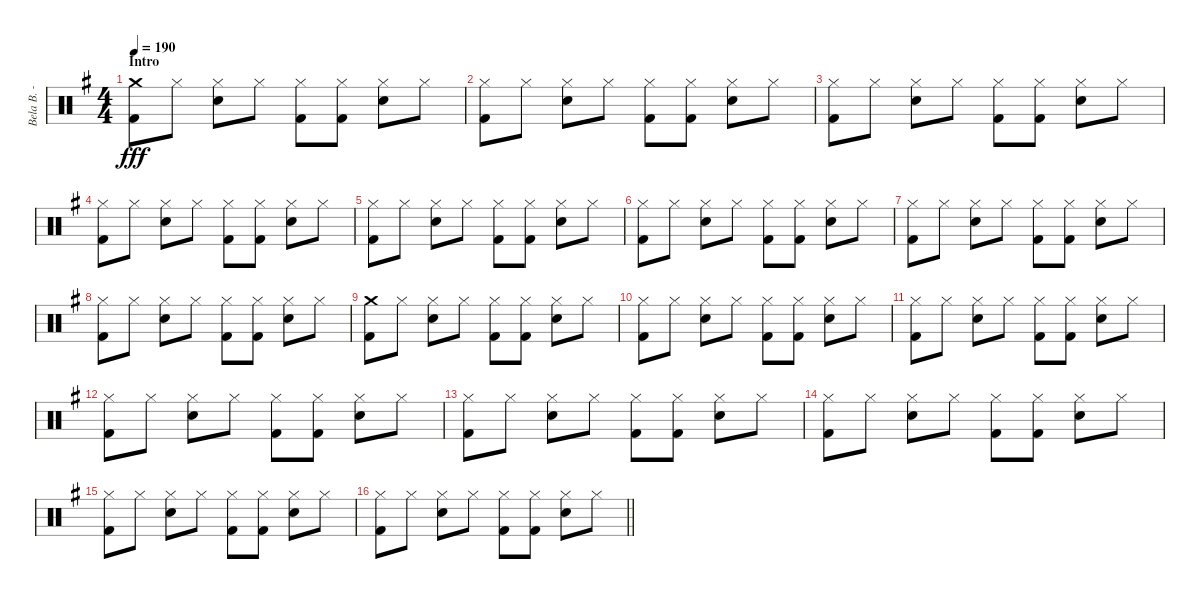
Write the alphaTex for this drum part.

\track ("Bela B. - Drums" "Bela B. - ") {instrument percussion}
\staff {score}
\articulation defaults
\ts (4 4)
\section ("" "Intro")
\tempo 190
\clef neutral
\ks g
("Crash medium (hit)" "Kick (hit) 2").8{dy fff} "Hi-Hat (closed)".8 ("Hi-Hat (closed)" "Snare (hit) 2").8 "Hi-Hat (closed)".8 ("Hi-Hat (closed)" "Kick (hit) 2").8 ("Hi-Hat (closed)" "Kick (hit) 2").8 ("Hi-Hat (closed)" "Snare (hit) 2").8 "Hi-Hat (closed)".8 |
("Hi-Hat (closed)" "Kick (hit) 2").8 "Hi-Hat (closed)".8 ("Hi-Hat (closed)" "Snare (hit) 2").8 "Hi-Hat (closed)".8 ("Hi-Hat (closed)" "Kick (hit) 2").8 ("Hi-Hat (closed)" "Kick (hit) 2").8 ("Hi-Hat (closed)" "Snare (hit) 2").8 "Hi-Hat (closed)".8 |
("Hi-Hat (closed)" "Kick (hit) 2").8 "Hi-Hat (closed)".8 ("Hi-Hat (closed)" "Snare (hit) 2").8 "Hi-Hat (closed)".8 ("Hi-Hat (closed)" "Kick (hit) 2").8 ("Hi-Hat (closed)" "Kick (hit) 2").8 ("Hi-Hat (closed)" "Snare (hit) 2").8 "Hi-Hat (closed)".8 |
("Hi-Hat (closed)" "Kick (hit) 2").8 "Hi-Hat (closed)".8 ("Hi-Hat (closed)" "Snare (hit) 2").8 "Hi-Hat (closed)".8 ("Hi-Hat (closed)" "Kick (hit) 2").8 ("Hi-Hat (closed)" "Kick (hit) 2").8 ("Hi-Hat (closed)" "Snare (hit) 2").8 "Hi-Hat (closed)".8 |
("Hi-Hat (closed)" "Kick (hit) 2").8 "Hi-Hat (closed)".8 ("Hi-Hat (closed)" "Snare (hit) 2").8 "Hi-Hat (closed)".8 ("Hi-Hat (closed)" "Kick (hit) 2").8 ("Hi-Hat (closed)" "Kick (hit) 2").8 ("Hi-Hat (closed)" "Snare (hit) 2").8 "Hi-Hat (closed)".8 |
("Hi-Hat (closed)" "Kick (hit) 2").8 "Hi-Hat (closed)".8 ("Hi-Hat (closed)" "Snare (hit) 2").8 "Hi-Hat (closed)".8 ("Hi-Hat (closed)" "Kick (hit) 2").8 ("Hi-Hat (closed)" "Kick (hit) 2").8 ("Hi-Hat (closed)" "Snare (hit) 2").8 "Hi-Hat (closed)".8 |
("Hi-Hat (closed)" "Kick (hit) 2").8 "Hi-Hat (closed)".8 ("Hi-Hat (closed)" "Snare (hit) 2").8 "Hi-Hat (closed)".8 ("Hi-Hat (closed)" "Kick (hit) 2").8 ("Hi-Hat (closed)" "Kick (hit) 2").8 ("Hi-Hat (closed)" "Snare (hit) 2").8 "Hi-Hat (closed)".8 |
("Hi-Hat (closed)" "Kick (hit) 2").8 "Hi-Hat (closed)".8 ("Hi-Hat (closed)" "Snare (hit) 2").8 "Hi-Hat (closed)".8 ("Hi-Hat (closed)" "Kick (hit) 2").8 ("Hi-Hat (closed)" "Kick (hit) 2").8 ("Hi-Hat (closed)" "Snare (hit) 2").8 "Hi-Hat (closed)".8 |
("Crash medium (hit)" "Kick (hit) 2").8 "Hi-Hat (closed)".8 ("Hi-Hat (closed)" "Snare (hit) 2").8 "Hi-Hat (closed)".8 ("Hi-Hat (closed)" "Kick (hit) 2").8 ("Hi-Hat (closed)" "Kick (hit) 2").8 ("Hi-Hat (closed)" "Snare (hit) 2").8 "Hi-Hat (closed)".8 |
("Hi-Hat (closed)" "Kick (hit) 2").8 "Hi-Hat (closed)".8 ("Hi-Hat (closed)" "Snare (hit) 2").8 "Hi-Hat (closed)".8 ("Hi-Hat (closed)" "Kick (hit) 2").8 ("Hi-Hat (closed)" "Kick (hit) 2").8 ("Hi-Hat (closed)" "Snare (hit) 2").8 "Hi-Hat (closed)".8 |
("Hi-Hat (closed)" "Kick (hit) 2").8 "Hi-Hat (closed)".8 ("Hi-Hat (closed)" "Snare (hit) 2").8 "Hi-Hat (closed)".8 ("Hi-Hat (closed)" "Kick (hit) 2").8 ("Hi-Hat (closed)" "Kick (hit) 2").8 ("Hi-Hat (closed)" "Snare (hit) 2").8 "Hi-Hat (closed)".8 |
("Hi-Hat (closed)" "Kick (hit) 2").8 "Hi-Hat (closed)".8 ("Hi-Hat (closed)" "Snare (hit) 2").8 "Hi-Hat (closed)".8 ("Hi-Hat (closed)" "Kick (hit) 2").8 ("Hi-Hat (closed)" "Kick (hit) 2").8 ("Hi-Hat (closed)" "Snare (hit) 2").8 "Hi-Hat (closed)".8 |
("Hi-Hat (closed)" "Kick (hit) 2").8 "Hi-Hat (closed)".8 ("Hi-Hat (closed)" "Snare (hit) 2").8 "Hi-Hat (closed)".8 ("Hi-Hat (closed)" "Kick (hit) 2").8 ("Hi-Hat (closed)" "Kick (hit) 2").8 ("Hi-Hat (closed)" "Snare (hit) 2").8 "Hi-Hat (closed)".8 |
("Hi-Hat (closed)" "Kick (hit) 2").8 "Hi-Hat (closed)".8 ("Hi-Hat (closed)" "Snare (hit) 2").8 "Hi-Hat (closed)".8 ("Hi-Hat (closed)" "Kick (hit) 2").8 ("Hi-Hat (closed)" "Kick (hit) 2").8 ("Hi-Hat (closed)" "Snare (hit) 2").8 "Hi-Hat (closed)".8 |
("Hi-Hat (closed)" "Kick (hit) 2").8 "Hi-Hat (closed)".8 ("Hi-Hat (closed)" "Snare (hit) 2").8 "Hi-Hat (closed)".8 ("Hi-Hat (closed)" "Kick (hit) 2").8 ("Hi-Hat (closed)" "Kick (hit) 2").8 ("Hi-Hat (closed)" "Snare (hit) 2").8 "Hi-Hat (closed)".8 |
\barLineRight lightlight
("Hi-Hat (closed)" "Kick (hit) 2").8 "Hi-Hat (closed)".8 ("Hi-Hat (closed)" "Snare (hit) 2").8 "Hi-Hat (closed)".8 ("Hi-Hat (closed)" "Kick (hit) 2").8 ("Hi-Hat (closed)" "Kick (hit) 2").8 ("Hi-Hat (closed)" "Snare (hit) 2").8 "Hi-Hat (closed)".8
